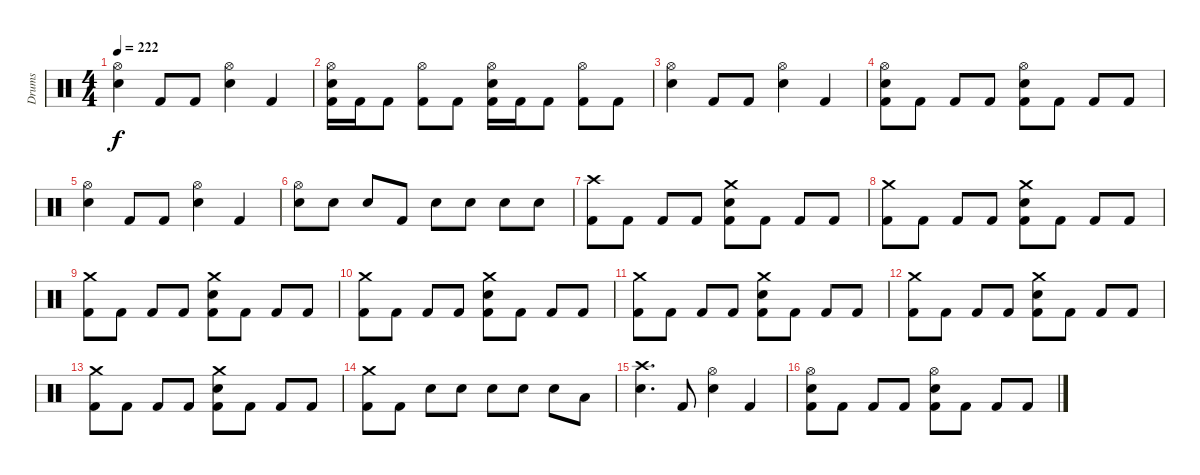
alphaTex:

\track ("Drums" "Drums") {instrument percussion}
\staff {score}
\articulation defaults
\ts (4 4)
\tempo 222
\clef neutral
\ks c
("Hi-Hat (open)" "Snare (hit) 2").4{dy f} "Kick (hit) 2".8 "Kick (hit) 2".8 ("Hi-Hat (open)" "Snare (hit) 2").4 "Kick (hit) 2".4 |
("Hi-Hat (open)" "Snare (hit) 2" "Kick (hit) 2").16 "Kick (hit) 2".16 "Kick (hit) 2".8 ("Hi-Hat (open)" "Kick (hit) 2").8 "Kick (hit) 2".8 ("Hi-Hat (open)" "Snare (hit) 2" "Kick (hit) 2").16 "Kick (hit) 2".16 "Kick (hit) 2".8 ("Hi-Hat (open)" "Kick (hit) 2").8 "Kick (hit) 2".8 |
("Hi-Hat (open)" "Snare (hit) 2").4 "Kick (hit) 2".8 "Kick (hit) 2".8 ("Hi-Hat (open)" "Snare (hit) 2").4 "Kick (hit) 2".4 |
("Hi-Hat (open)" "Snare (hit) 2" "Kick (hit) 2").8 "Kick (hit) 2".8 "Kick (hit) 2".8 "Kick (hit) 2".8 ("Hi-Hat (open)" "Snare (hit) 2" "Kick (hit) 2").8 "Kick (hit) 2".8 "Kick (hit) 2".8 "Kick (hit) 2".8 |
("Hi-Hat (open)" "Snare (hit) 2").4 "Kick (hit) 2".8 "Kick (hit) 2".8 ("Hi-Hat (open)" "Snare (hit) 2").4 "Kick (hit) 2".4 |
("Hi-Hat (open)" "Snare (hit) 2").8 "Snare (hit) 2".8 "Snare (hit) 2".8 "Kick (hit) 2".8 "Snare (hit) 2".8 "Snare (hit) 2".8 "Snare (hit) 2".8 "Snare (hit) 2".8 |
("Crash high (hit)" "Kick (hit) 2").8 "Kick (hit) 2".8 "Kick (hit) 2".8 "Kick (hit) 2".8 ("Crash medium (hit)" "Snare (hit) 2" "Kick (hit) 2").8 "Kick (hit) 2".8 "Kick (hit) 2".8 "Kick (hit) 2".8 |
("Crash medium (hit)" "Kick (hit) 2").8 "Kick (hit) 2".8 "Kick (hit) 2".8 "Kick (hit) 2".8 ("Crash medium (hit)" "Snare (hit) 2" "Kick (hit) 2").8 "Kick (hit) 2".8 "Kick (hit) 2".8 "Kick (hit) 2".8 |
("Crash medium (hit)" "Kick (hit) 2").8 "Kick (hit) 2".8 "Kick (hit) 2".8 "Kick (hit) 2".8 ("Crash medium (hit)" "Snare (hit) 2" "Kick (hit) 2").8 "Kick (hit) 2".8 "Kick (hit) 2".8 "Kick (hit) 2".8 |
("Crash medium (hit)" "Kick (hit) 2").8 "Kick (hit) 2".8 "Kick (hit) 2".8 "Kick (hit) 2".8 ("Crash medium (hit)" "Snare (hit) 2" "Kick (hit) 2").8 "Kick (hit) 2".8 "Kick (hit) 2".8 "Kick (hit) 2".8 |
("Crash medium (hit)" "Kick (hit) 2").8 "Kick (hit) 2".8 "Kick (hit) 2".8 "Kick (hit) 2".8 ("Crash medium (hit)" "Snare (hit) 2" "Kick (hit) 2").8 "Kick (hit) 2".8 "Kick (hit) 2".8 "Kick (hit) 2".8 |
("Crash medium (hit)" "Kick (hit) 2").8 "Kick (hit) 2".8 "Kick (hit) 2".8 "Kick (hit) 2".8 ("Crash medium (hit)" "Snare (hit) 2" "Kick (hit) 2").8 "Kick (hit) 2".8 "Kick (hit) 2".8 "Kick (hit) 2".8 |
("Crash medium (hit)" "Kick (hit) 2").8 "Kick (hit) 2".8 "Kick (hit) 2".8 "Kick (hit) 2".8 ("Crash medium (hit)" "Snare (hit) 2" "Kick (hit) 2").8 "Kick (hit) 2".8 "Kick (hit) 2".8 "Kick (hit) 2".8 |
("Crash medium (hit)" "Kick (hit) 2").8 "Kick (hit) 2".8 "Snare (hit) 2".8 "Snare (hit) 2".8 "Snare (hit) 2".8 "Snare (hit) 2".8 "Snare (hit) 2".8 "Low Tom (hit)".8 |
("Crash high (hit)" "Snare (hit) 2").4{d} "Kick (hit) 2".8 ("Hi-Hat (open)" "Snare (hit) 2").4 "Kick (hit) 2".4 |
("Hi-Hat (open)" "Snare (hit) 2" "Kick (hit) 2").8 "Kick (hit) 2".8 "Kick (hit) 2".8 "Kick (hit) 2".8 ("Hi-Hat (open)" "Snare (hit) 2" "Kick (hit) 2").8 "Kick (hit) 2".8 "Kick (hit) 2".8 "Kick (hit) 2".8
